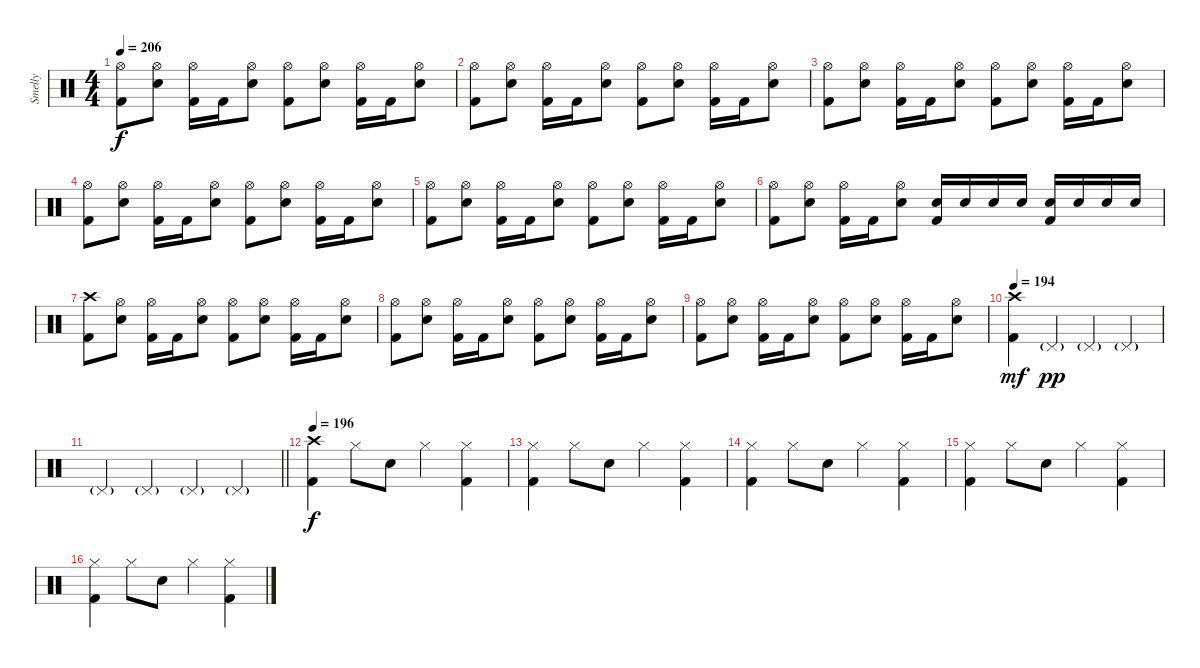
\track ("Smelly" "Smelly") {instrument percussion}
\staff {score}
\articulation defaults
\ts (4 4)
\tempo 206
\clef neutral
\ks c
("Hi-Hat (open)" "Kick (hit) 2").8{dy f} ("Hi-Hat (open)" "Electric Snare (hit)").8 ("Hi-Hat (open)" "Kick (hit) 2").16 "Kick (hit) 2".16 ("Hi-Hat (open)" "Electric Snare (hit)").8 ("Hi-Hat (open)" "Kick (hit) 2").8 ("Hi-Hat (open)" "Electric Snare (hit)").8 ("Hi-Hat (open)" "Kick (hit) 2").16 "Kick (hit) 2".16 ("Hi-Hat (open)" "Electric Snare (hit)").8 |
("Hi-Hat (open)" "Kick (hit) 2").8 ("Hi-Hat (open)" "Electric Snare (hit)").8 ("Hi-Hat (open)" "Kick (hit) 2").16 "Kick (hit) 2".16 ("Hi-Hat (open)" "Electric Snare (hit)").8 ("Hi-Hat (open)" "Kick (hit) 2").8 ("Hi-Hat (open)" "Electric Snare (hit)").8 ("Hi-Hat (open)" "Kick (hit) 2").16 "Kick (hit) 2".16 ("Hi-Hat (open)" "Electric Snare (hit)").8 |
("Hi-Hat (open)" "Kick (hit) 2").8 ("Hi-Hat (open)" "Electric Snare (hit)").8 ("Hi-Hat (open)" "Kick (hit) 2").16 "Kick (hit) 2".16 ("Hi-Hat (open)" "Electric Snare (hit)").8 ("Hi-Hat (open)" "Kick (hit) 2").8 ("Hi-Hat (open)" "Electric Snare (hit)").8 ("Hi-Hat (open)" "Kick (hit) 2").16 "Kick (hit) 2".16 ("Hi-Hat (open)" "Electric Snare (hit)").8 |
("Hi-Hat (open)" "Kick (hit) 2").8 ("Hi-Hat (open)" "Electric Snare (hit)").8 ("Hi-Hat (open)" "Kick (hit) 2").16 "Kick (hit) 2".16 ("Hi-Hat (open)" "Electric Snare (hit)").8 ("Hi-Hat (open)" "Kick (hit) 2").8 ("Hi-Hat (open)" "Electric Snare (hit)").8 ("Hi-Hat (open)" "Kick (hit) 2").16 "Kick (hit) 2".16 ("Hi-Hat (open)" "Electric Snare (hit)").8 |
("Hi-Hat (open)" "Kick (hit) 2").8 ("Hi-Hat (open)" "Electric Snare (hit)").8 ("Hi-Hat (open)" "Kick (hit) 2").16 "Kick (hit) 2".16 ("Hi-Hat (open)" "Electric Snare (hit)").8 ("Hi-Hat (open)" "Kick (hit) 2").8 ("Hi-Hat (open)" "Electric Snare (hit)").8 ("Hi-Hat (open)" "Kick (hit) 2").16 "Kick (hit) 2".16 ("Hi-Hat (open)" "Electric Snare (hit)").8 |
("Hi-Hat (open)" "Kick (hit) 2").8 ("Hi-Hat (open)" "Electric Snare (hit)").8 ("Hi-Hat (open)" "Kick (hit) 2").16 "Kick (hit) 2".16 ("Hi-Hat (open)" "Electric Snare (hit)").8 ("Electric Snare (hit)" "Kick (hit) 2").16 "Electric Snare (hit)".16 "Electric Snare (hit)".16 "Electric Snare (hit)".16 ("Electric Snare (hit)" "Kick (hit) 2").16 "Electric Snare (hit)".16 "Electric Snare (hit)".16 "Electric Snare (hit)".16 |
("Crash high (hit)" "Kick (hit) 2").8 ("Hi-Hat (open)" "Electric Snare (hit)").8 ("Hi-Hat (open)" "Kick (hit) 2").16 "Kick (hit) 2".16 ("Hi-Hat (open)" "Electric Snare (hit)").8 ("Hi-Hat (open)" "Kick (hit) 2").8 ("Hi-Hat (open)" "Electric Snare (hit)").8 ("Hi-Hat (open)" "Kick (hit) 2").16 "Kick (hit) 2".16 ("Hi-Hat (open)" "Electric Snare (hit)").8 |
("Hi-Hat (open)" "Kick (hit) 2").8 ("Hi-Hat (open)" "Electric Snare (hit)").8 ("Hi-Hat (open)" "Kick (hit) 2").16 "Kick (hit) 2".16 ("Hi-Hat (open)" "Electric Snare (hit)").8 ("Hi-Hat (open)" "Kick (hit) 2").8 ("Hi-Hat (open)" "Electric Snare (hit)").8 ("Hi-Hat (open)" "Kick (hit) 2").16 "Kick (hit) 2".16 ("Hi-Hat (open)" "Electric Snare (hit)").8 |
("Hi-Hat (open)" "Kick (hit) 2").8 ("Hi-Hat (open)" "Electric Snare (hit)").8 ("Hi-Hat (open)" "Kick (hit) 2").16 "Kick (hit) 2".16 ("Hi-Hat (open)" "Electric Snare (hit)").8 ("Hi-Hat (open)" "Kick (hit) 2").8 ("Hi-Hat (open)" "Electric Snare (hit)").8 ("Hi-Hat (open)" "Kick (hit) 2").16 "Kick (hit) 2".16 ("Hi-Hat (open)" "Electric Snare (hit)").8 |
\tempo 194
("Crash high (hit)" "Kick (hit) 2").4{dy mf} "Pedal Hi-Hat (hit)"{g}.4{dy pp} "Pedal Hi-Hat (hit)"{g}.4 "Pedal Hi-Hat (hit)"{g}.4 |
\barLineRight lightlight "Pedal Hi-Hat (hit)"{g}.4 "Pedal Hi-Hat (hit)"{g}.4 "Pedal Hi-Hat (hit)"{g}.4 "Pedal Hi-Hat (hit)"{g}.4
|
\section ("" "")
\tempo 196
("Crash high (hit)" "Kick (hit) 2").4{dy f} "Hi-Hat (closed)".8 "Electric Snare (hit)".8 "Hi-Hat (closed)".4 ("Hi-Hat (closed)" "Kick (hit) 2").4 |
("Hi-Hat (closed)" "Kick (hit) 2").4 "Hi-Hat (closed)".8 "Electric Snare (hit)".8 "Hi-Hat (closed)".4 ("Hi-Hat (closed)" "Kick (hit) 2").4 |
("Hi-Hat (closed)" "Kick (hit) 2").4 "Hi-Hat (closed)".8 "Electric Snare (hit)".8 "Hi-Hat (closed)".4 ("Hi-Hat (closed)" "Kick (hit) 2").4 |
("Hi-Hat (closed)" "Kick (hit) 2").4 "Hi-Hat (closed)".8 "Electric Snare (hit)".8 "Hi-Hat (closed)".4 ("Hi-Hat (closed)" "Kick (hit) 2").4 |
("Hi-Hat (closed)" "Kick (hit) 2").4 "Hi-Hat (closed)".8 "Electric Snare (hit)".8 "Hi-Hat (closed)".4 ("Hi-Hat (closed)" "Kick (hit) 2").4
